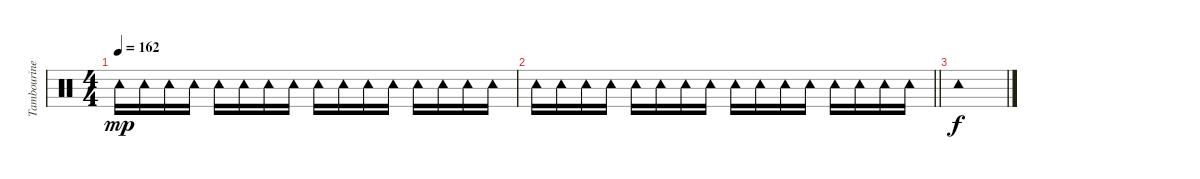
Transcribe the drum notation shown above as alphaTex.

\track ("Tambourine" "Tambourine") {instrument percussion}
\staff {score}
\articulation defaults
\ts (4 4)
\tempo 162
\clef neutral
\ks c "Tambourine (hit)".16{dy mp} "Tambourine (hit)".16 "Tambourine (hit)".16 "Tambourine (hit)".16 "Tambourine (hit)".16 "Tambourine (hit)".16 "Tambourine (hit)".16 "Tambourine (hit)".16 "Tambourine (hit)".16 "Tambourine (hit)".16 "Tambourine (hit)".16 "Tambourine (hit)".16 "Tambourine (hit)".16 "Tambourine (hit)".16 "Tambourine (hit)".16 "Tambourine (hit)".16
|
\barLineRight lightlight "Tambourine (hit)".16 "Tambourine (hit)".16 "Tambourine (hit)".16 "Tambourine (hit)".16 "Tambourine (hit)".16 "Tambourine (hit)".16 "Tambourine (hit)".16 "Tambourine (hit)".16 "Tambourine (hit)".16 "Tambourine (hit)".16 "Tambourine (hit)".16 "Tambourine (hit)".16 "Tambourine (hit)".16 "Tambourine (hit)".16 "Tambourine (hit)".16 "Tambourine (hit)".16
|
"Tambourine (hit)".1{dy f}
